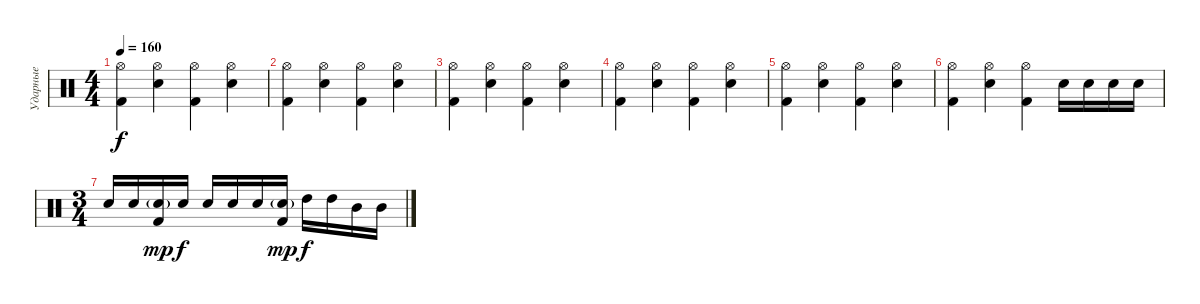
\track ("Ударные" "Ударные") {instrument percussion}
\staff {score}
\articulation defaults
\ts (4 4)
\tempo 160
\clef neutral
\ks c
("Hi-Hat (open)" "Kick (hit) 2").4{dy f} ("Hi-Hat (open)" "Snare (hit) 2").4 ("Hi-Hat (open)" "Kick (hit) 2").4 ("Hi-Hat (open)" "Snare (hit) 2").4 |
("Hi-Hat (open)" "Kick (hit) 2").4 ("Hi-Hat (open)" "Snare (hit) 2").4 ("Hi-Hat (open)" "Kick (hit) 2").4 ("Hi-Hat (open)" "Snare (hit) 2").4 |
("Hi-Hat (open)" "Kick (hit) 2").4 ("Hi-Hat (open)" "Snare (hit) 2").4 ("Hi-Hat (open)" "Kick (hit) 2").4 ("Hi-Hat (open)" "Snare (hit) 2").4 |
("Hi-Hat (open)" "Kick (hit) 2").4 ("Hi-Hat (open)" "Snare (hit) 2").4 ("Hi-Hat (open)" "Kick (hit) 2").4 ("Hi-Hat (open)" "Snare (hit) 2").4 |
("Hi-Hat (open)" "Kick (hit) 2").4 ("Hi-Hat (open)" "Snare (hit) 2").4 ("Hi-Hat (open)" "Kick (hit) 2").4 ("Hi-Hat (open)" "Snare (hit) 2").4 |
("Hi-Hat (open)" "Kick (hit) 2").4 ("Hi-Hat (open)" "Snare (hit) 2").4 ("Hi-Hat (open)" "Kick (hit) 2").4 "Snare (hit) 2".16 "Snare (hit) 2".16 "Snare (hit) 2".16 "Snare (hit) 2".16 |
\ts (3 4)
"Snare (hit) 2".16 "Snare (hit) 2".16 ("Kick (hit) 2" "Snare (hit) 2"{g}).16{dy mp} "Snare (hit) 2".16{dy f} "Snare (hit) 2".16 "Snare (hit) 2".16 "Snare (hit) 2".16 ("Kick (hit) 2" "Snare (hit) 2"{g}).16{dy mp} "High Tom (hit)".16{dy f} "High Tom (hit)".16 "Mid Tom (hit)".16 "Mid Tom (hit)".16
